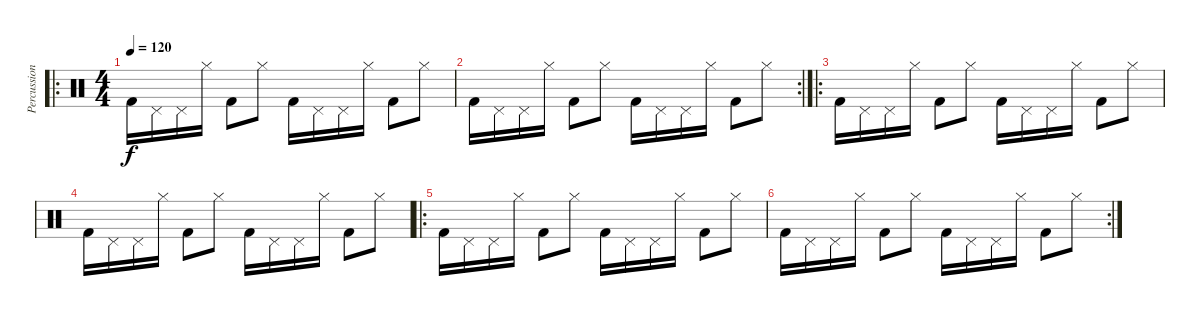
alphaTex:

\track ("Percussions" "Percussion") {instrument percussion}
\staff {score}
\articulation defaults
\ro
\ts (4 4)
\tempo 120
\clef neutral
\ks c "Kick (hit) 2".16{dy f} "Pedal Hi-Hat (hit)".16 "Pedal Hi-Hat (hit)".16 "Hi-Hat (closed)".16 "Kick (hit) 2".8 "Hi-Hat (closed)".8 "Kick (hit) 2".16 "Pedal Hi-Hat (hit)".16 "Pedal Hi-Hat (hit)".16 "Hi-Hat (closed)".16 "Kick (hit) 2".8 "Hi-Hat (closed)".8
|
\rc 2 "Kick (hit) 2".16 "Pedal Hi-Hat (hit)".16 "Pedal Hi-Hat (hit)".16 "Hi-Hat (closed)".16 "Kick (hit) 2".8 "Hi-Hat (closed)".8 "Kick (hit) 2".16 "Pedal Hi-Hat (hit)".16 "Pedal Hi-Hat (hit)".16 "Hi-Hat (closed)".16 "Kick (hit) 2".8 "Hi-Hat (closed)".8
|
\ro "Kick (hit) 2".16 "Pedal Hi-Hat (hit)".16 "Pedal Hi-Hat (hit)".16 "Hi-Hat (closed)".16 "Kick (hit) 2".8 "Hi-Hat (closed)".8 "Kick (hit) 2".16 "Pedal Hi-Hat (hit)".16 "Pedal Hi-Hat (hit)".16 "Hi-Hat (closed)".16 "Kick (hit) 2".8 "Hi-Hat (closed)".8
|
"Kick (hit) 2".16 "Pedal Hi-Hat (hit)".16 "Pedal Hi-Hat (hit)".16 "Hi-Hat (closed)".16 "Kick (hit) 2".8 "Hi-Hat (closed)".8 "Kick (hit) 2".16 "Pedal Hi-Hat (hit)".16 "Pedal Hi-Hat (hit)".16 "Hi-Hat (closed)".16 "Kick (hit) 2".8 "Hi-Hat (closed)".8 |
\ro "Kick (hit) 2".16 "Pedal Hi-Hat (hit)".16 "Pedal Hi-Hat (hit)".16 "Hi-Hat (closed)".16 "Kick (hit) 2".8 "Hi-Hat (closed)".8 "Kick (hit) 2".16 "Pedal Hi-Hat (hit)".16 "Pedal Hi-Hat (hit)".16 "Hi-Hat (closed)".16 "Kick (hit) 2".8 "Hi-Hat (closed)".8
|
\rc 2 "Kick (hit) 2".16 "Pedal Hi-Hat (hit)".16 "Pedal Hi-Hat (hit)".16 "Hi-Hat (closed)".16 "Kick (hit) 2".8 "Hi-Hat (closed)".8 "Kick (hit) 2".16 "Pedal Hi-Hat (hit)".16 "Pedal Hi-Hat (hit)".16 "Hi-Hat (closed)".16 "Kick (hit) 2".8 "Hi-Hat (closed)".8
